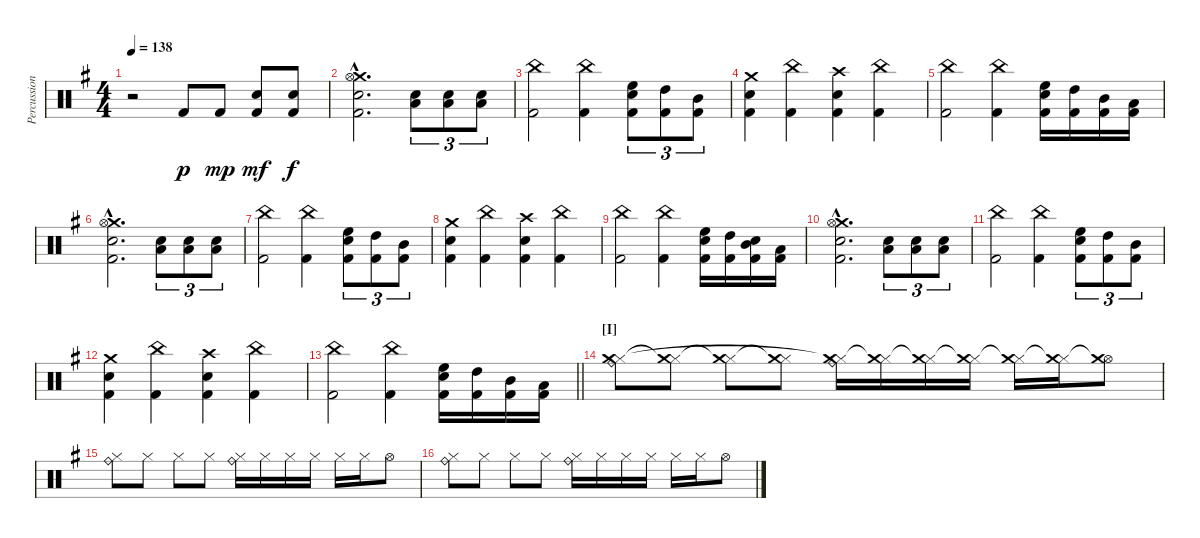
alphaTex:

\track ("Percussion" "Percussion") {instrument percussion}
\staff {score}
\articulation defaults
\ts (4 4)
\tempo 138
\clef neutral
\ks eminor
r.2{dy f} "Kick (hit) 2".8{dy p} "Kick (hit) 2".8{dy mp} ("Snare (hit) 2" "Kick (hit) 2").8{dy mf} ("Snare (hit) 2" "Kick (hit) 2").8{dy f} |
("Crash medium (hit)"{hac} "Hi-Hat (open)"{hac} "Snare (hit) 2"{hac} "Kick (hit) 2"{hac}).2{d} ("Snare (hit) 2" "Low Floor Tom (hit)").8{tu (3 2)} ("Snare (hit) 2" "Low Floor Tom (hit)").8{tu (3 2)} ("Snare (hit) 2" "Low Floor Tom (hit)").8{tu (3 2)} |
("China (hit)" "Kick (hit) 2").2 ("China (hit)" "Kick (hit) 2").4 ("High Floor Tom (hit)" "Snare (hit) 2" "Kick (hit) 2").8{tu (3 2)} ("High Tom (hit)" "Kick (hit) 2").8{tu (3 2)} ("Mid Tom (hit)" "Kick (hit) 2").8{tu (3 2)} |
("Crash medium (hit)" "Snare (hit) 2" "Kick (hit) 2").4 ("China (hit)" "Kick (hit) 2").4 ("Crash high (hit)" "Snare (hit) 2" "Kick (hit) 2").4 ("China (hit)" "Kick (hit) 2").4 |
("China (hit)" "Kick (hit) 2").2 ("China (hit)" "Kick (hit) 2").4 ("High Floor Tom (hit)" "Snare (hit) 2" "Kick (hit) 2").16 ("High Tom (hit)" "Kick (hit) 2").16 ("Mid Tom (hit)" "Kick (hit) 2").16 ("Low Tom (hit)" "Kick (hit) 2").16 |
("Crash medium (hit)"{hac} "Hi-Hat (open)"{hac} "Snare (hit) 2"{hac} "Kick (hit) 2"{hac}).2{d} ("Snare (hit) 2" "Low Floor Tom (hit)").8{tu (3 2)} ("Snare (hit) 2" "Low Floor Tom (hit)").8{tu (3 2)} ("Snare (hit) 2" "Low Floor Tom (hit)").8{tu (3 2)} |
("China (hit)" "Kick (hit) 2").2 ("China (hit)" "Kick (hit) 2").4 ("High Floor Tom (hit)" "Snare (hit) 2" "Kick (hit) 2").8{tu (3 2)} ("High Tom (hit)" "Kick (hit) 2").8{tu (3 2)} ("Mid Tom (hit)" "Kick (hit) 2").8{tu (3 2)} |
("Crash medium (hit)" "Snare (hit) 2" "Kick (hit) 2").4 ("China (hit)" "Kick (hit) 2").4 ("Crash high (hit)" "Snare (hit) 2" "Kick (hit) 2").4 ("China (hit)" "Kick (hit) 2").4 |
("China (hit)" "Kick (hit) 2").2 ("China (hit)" "Kick (hit) 2").4 ("High Floor Tom (hit)" "Snare (hit) 2" "Kick (hit) 2").16 ("High Tom (hit)" "Kick (hit) 2").16 ("Mid Tom (hit)" "Snare (hit) 2" "Kick (hit) 2").16 ("Low Tom (hit)" "Kick (hit) 2").16 |
("Crash medium (hit)"{hac} "Hi-Hat (open)"{hac} "Snare (hit) 2"{hac} "Kick (hit) 2"{hac}).2{d} ("Snare (hit) 2" "Low Floor Tom (hit)").8{tu (3 2)} ("Snare (hit) 2" "Low Floor Tom (hit)").8{tu (3 2)} ("Snare (hit) 2" "Low Floor Tom (hit)").8{tu (3 2)} |
("China (hit)" "Kick (hit) 2").2 ("China (hit)" "Kick (hit) 2").4 ("High Floor Tom (hit)" "Snare (hit) 2" "Kick (hit) 2").8{tu (3 2)} ("High Tom (hit)" "Kick (hit) 2").8{tu (3 2)} ("Mid Tom (hit)" "Kick (hit) 2").8{tu (3 2)} |
("Crash medium (hit)" "Snare (hit) 2" "Kick (hit) 2").4 ("China (hit)" "Kick (hit) 2").4 ("Crash high (hit)" "Snare (hit) 2" "Kick (hit) 2").4 ("China (hit)" "Kick (hit) 2").4 |
\barLineRight lightlight
("China (hit)" "Kick (hit) 2").2 ("China (hit)" "Kick (hit) 2").4 ("High Floor Tom (hit)" "Snare (hit) 2" "Kick (hit) 2").16 ("High Tom (hit)" "Kick (hit) 2").16 ("Mid Tom (hit)" "Kick (hit) 2").16 ("Low Tom (hit)" "Kick (hit) 2").16 |
\section ("" "[I]")
("Ride (bell)" "Hi-Hat (closed)" "Crash medium (hit)").8 ("Hi-Hat (closed)" "Crash medium (hit)"{t}).8 ("Hi-Hat (closed)" "Crash medium (hit)"{t}).8 ("Hi-Hat (closed)" "Crash medium (hit)"{t}).8 ("Ride (bell)" "Hi-Hat (closed)" "Crash medium (hit)"{t}).16 ("Hi-Hat (closed)" "Crash medium (hit)"{t}).16 ("Hi-Hat (closed)" "Crash medium (hit)"{t}).16 ("Hi-Hat (closed)" "Crash medium (hit)"{t}).16 ("Hi-Hat (closed)" "Crash medium (hit)"{t}).16 ("Hi-Hat (closed)" "Crash medium (hit)"{t}).16 ("Hi-Hat (open)" "Crash medium (hit)"{t}).8 |
("Ride (bell)" "Hi-Hat (closed)").8 "Hi-Hat (closed)".8 "Hi-Hat (closed)".8 "Hi-Hat (closed)".8 ("Ride (bell)" "Hi-Hat (closed)").16 "Hi-Hat (closed)".16 "Hi-Hat (closed)".16 "Hi-Hat (closed)".16 "Hi-Hat (closed)".16 "Hi-Hat (closed)".16 "Hi-Hat (open)".8 |
("Ride (bell)" "Hi-Hat (closed)").8 "Hi-Hat (closed)".8 "Hi-Hat (closed)".8 "Hi-Hat (closed)".8 ("Ride (bell)" "Hi-Hat (closed)").16 "Hi-Hat (closed)".16 "Hi-Hat (closed)".16 "Hi-Hat (closed)".16 "Hi-Hat (closed)".16 "Hi-Hat (closed)".16 "Hi-Hat (open)".8
